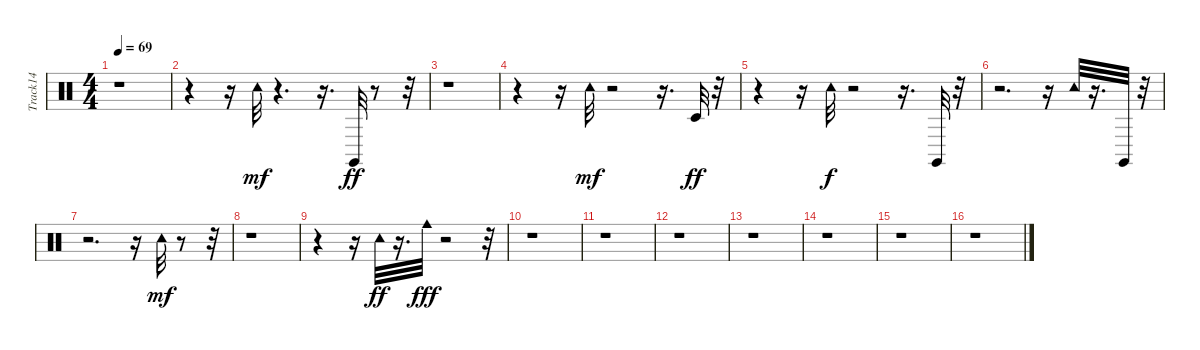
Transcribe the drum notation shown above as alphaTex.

\track ("Track14" "Track14") {instrument percussion}
\staff {score}
\articulation defaults
\ts (4 4)
\tempo 69
\clef neutral
\ks c
r.1{dy fff} |
r.4 r.16 "Tambourine (hit)".32{dy mf} r.4{d} r.16{d} "Claves (hit)".32{dy ff} r.8 r.32 |
r.1 |
r.4 r.16 "Tambourine (hit)".32{dy mf} r.2 r.16{d} "Timbale low (hit)".32{dy ff} r.32 |
r.4 r.16 "Tambourine (hit)".32{dy f} r.2 r.16{d} "Claves (hit)".32 r.32 |
r.2{d} r.16 "Tambourine (hit)".32 r.16{d} "Claves (hit)".32 r.32 |
r.2{d} r.16 "Tambourine (hit)".32{dy mf} r.8 r.32 |
r.1 |
r.4 r.16 "Tambourine (hit)".32{dy ff} r.16{d} "Cowbell medium (hit)".32{dy fff} r.2 r.32 |
r.1 |
r.1 |
r.1 |
r.1 |
r.1 |
r.1 |
r.1
